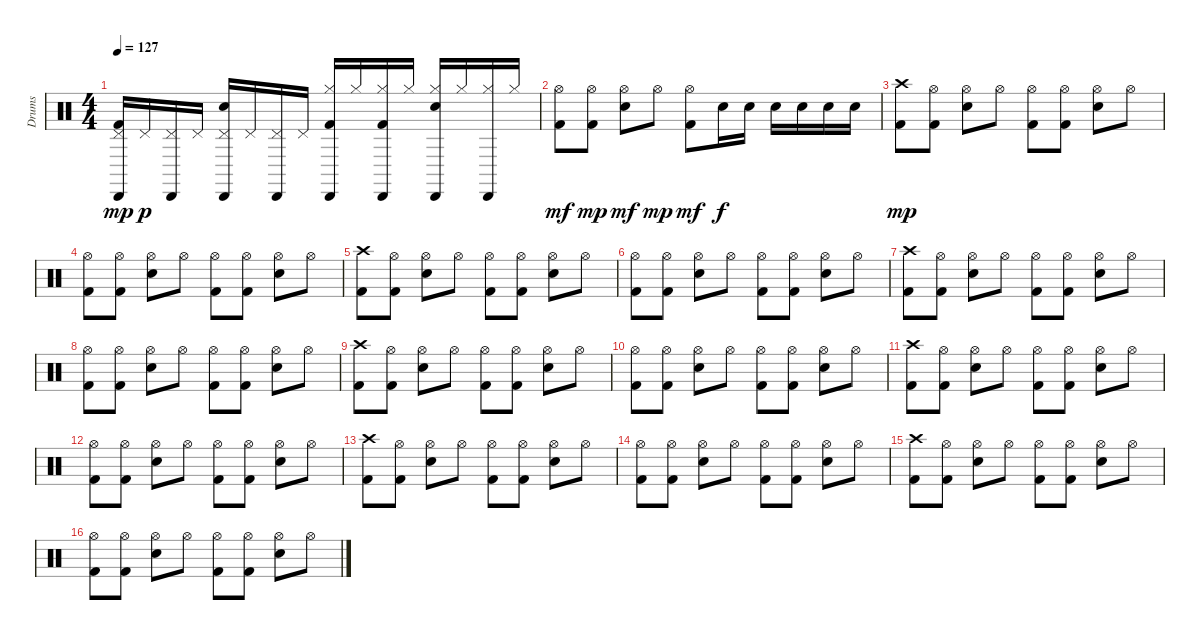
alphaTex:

\track ("Drums" "Drums") {instrument percussion}
\staff {score}
\articulation defaults
\ts (4 4)
\tempo 127
\clef neutral
\ks c
("Cabasa (hit)" "Pedal Hi-Hat (hit)" "Kick (hit) 2").16{dy mp} "Pedal Hi-Hat (hit)".16{dy p} ("Cabasa (hit)" "Pedal Hi-Hat (hit)").16 "Pedal Hi-Hat (hit)".16 ("Cabasa (hit)" "Pedal Hi-Hat (hit)" "Electric Snare (hit)").16 "Pedal Hi-Hat (hit)".16 ("Cabasa (hit)" "Pedal Hi-Hat (hit)").16 "Pedal Hi-Hat (hit)".16 ("Cabasa (hit)" "Hi-Hat (closed)" "Kick (hit) 2").16 "Hi-Hat (closed)".16 ("Cabasa (hit)" "Hi-Hat (closed)" "Kick (hit) 2").16 "Hi-Hat (closed)".16 ("Cabasa (hit)" "Hi-Hat (closed)" "Electric Snare (hit)").16 "Hi-Hat (closed)".16 ("Cabasa (hit)" "Hi-Hat (closed)").16 "Hi-Hat (closed)".16 |
("Hi-Hat (open)" "Kick (hit) 2").8{dy mf} ("Hi-Hat (open)" "Kick (hit) 2").8{dy mp} ("Hi-Hat (open)" "Electric Snare (hit)").8{dy mf} "Hi-Hat (open)".8{dy mp} ("Hi-Hat (open)" "Kick (hit) 2").8{dy mf} "Electric Snare (hit)".16{dy f} "Electric Snare (hit)".16 "Electric Snare (hit)".16 "Electric Snare (hit)".16 "Electric Snare (hit)".16 "Electric Snare (hit)".16 |
("Crash high (hit)" "Kick (hit) 2").8{dy mp} ("Hi-Hat (open)" "Kick (hit) 2").8 ("Hi-Hat (open)" "Electric Snare (hit)").8 "Hi-Hat (open)".8 ("Hi-Hat (open)" "Kick (hit) 2").8 ("Hi-Hat (open)" "Kick (hit) 2").8 ("Hi-Hat (open)" "Electric Snare (hit)").8 "Hi-Hat (open)".8 |
("Hi-Hat (open)" "Kick (hit) 2").8 ("Hi-Hat (open)" "Kick (hit) 2").8 ("Hi-Hat (open)" "Electric Snare (hit)").8 "Hi-Hat (open)".8 ("Hi-Hat (open)" "Kick (hit) 2").8 ("Hi-Hat (open)" "Kick (hit) 2").8 ("Hi-Hat (open)" "Electric Snare (hit)").8 "Hi-Hat (open)".8 |
("Crash high (hit)" "Kick (hit) 2").8 ("Hi-Hat (open)" "Kick (hit) 2").8 ("Hi-Hat (open)" "Electric Snare (hit)").8 "Hi-Hat (open)".8 ("Hi-Hat (open)" "Kick (hit) 2").8 ("Hi-Hat (open)" "Kick (hit) 2").8 ("Hi-Hat (open)" "Electric Snare (hit)").8 "Hi-Hat (open)".8 |
("Hi-Hat (open)" "Kick (hit) 2").8 ("Hi-Hat (open)" "Kick (hit) 2").8 ("Hi-Hat (open)" "Electric Snare (hit)").8 "Hi-Hat (open)".8 ("Hi-Hat (open)" "Kick (hit) 2").8 ("Hi-Hat (open)" "Kick (hit) 2").8 ("Hi-Hat (open)" "Electric Snare (hit)").8 "Hi-Hat (open)".8 |
("Crash high (hit)" "Kick (hit) 2").8 ("Hi-Hat (open)" "Kick (hit) 2").8 ("Hi-Hat (open)" "Electric Snare (hit)").8 "Hi-Hat (open)".8 ("Hi-Hat (open)" "Kick (hit) 2").8 ("Hi-Hat (open)" "Kick (hit) 2").8 ("Hi-Hat (open)" "Electric Snare (hit)").8 "Hi-Hat (open)".8 |
("Hi-Hat (open)" "Kick (hit) 2").8 ("Hi-Hat (open)" "Kick (hit) 2").8 ("Hi-Hat (open)" "Electric Snare (hit)").8 "Hi-Hat (open)".8 ("Hi-Hat (open)" "Kick (hit) 2").8 ("Hi-Hat (open)" "Kick (hit) 2").8 ("Hi-Hat (open)" "Electric Snare (hit)").8 "Hi-Hat (open)".8 |
("Crash high (hit)" "Kick (hit) 2").8 ("Hi-Hat (open)" "Kick (hit) 2").8 ("Hi-Hat (open)" "Electric Snare (hit)").8 "Hi-Hat (open)".8 ("Hi-Hat (open)" "Kick (hit) 2").8 ("Hi-Hat (open)" "Kick (hit) 2").8 ("Hi-Hat (open)" "Electric Snare (hit)").8 "Hi-Hat (open)".8 |
("Hi-Hat (open)" "Kick (hit) 2").8 ("Hi-Hat (open)" "Kick (hit) 2").8 ("Hi-Hat (open)" "Electric Snare (hit)").8 "Hi-Hat (open)".8 ("Hi-Hat (open)" "Kick (hit) 2").8 ("Hi-Hat (open)" "Kick (hit) 2").8 ("Hi-Hat (open)" "Electric Snare (hit)").8 "Hi-Hat (open)".8 |
("Crash high (hit)" "Kick (hit) 2").8 ("Hi-Hat (open)" "Kick (hit) 2").8 ("Hi-Hat (open)" "Electric Snare (hit)").8 "Hi-Hat (open)".8 ("Hi-Hat (open)" "Kick (hit) 2").8 ("Hi-Hat (open)" "Kick (hit) 2").8 ("Hi-Hat (open)" "Electric Snare (hit)").8 "Hi-Hat (open)".8 |
("Hi-Hat (open)" "Kick (hit) 2").8 ("Hi-Hat (open)" "Kick (hit) 2").8 ("Hi-Hat (open)" "Electric Snare (hit)").8 "Hi-Hat (open)".8 ("Hi-Hat (open)" "Kick (hit) 2").8 ("Hi-Hat (open)" "Kick (hit) 2").8 ("Hi-Hat (open)" "Electric Snare (hit)").8 "Hi-Hat (open)".8 |
("Crash high (hit)" "Kick (hit) 2").8 ("Hi-Hat (open)" "Kick (hit) 2").8 ("Hi-Hat (open)" "Electric Snare (hit)").8 "Hi-Hat (open)".8 ("Hi-Hat (open)" "Kick (hit) 2").8 ("Hi-Hat (open)" "Kick (hit) 2").8 ("Hi-Hat (open)" "Electric Snare (hit)").8 "Hi-Hat (open)".8 |
("Hi-Hat (open)" "Kick (hit) 2").8 ("Hi-Hat (open)" "Kick (hit) 2").8 ("Hi-Hat (open)" "Electric Snare (hit)").8 "Hi-Hat (open)".8 ("Hi-Hat (open)" "Kick (hit) 2").8 ("Hi-Hat (open)" "Kick (hit) 2").8 ("Hi-Hat (open)" "Electric Snare (hit)").8 "Hi-Hat (open)".8 |
("Crash high (hit)" "Kick (hit) 2").8 ("Hi-Hat (open)" "Kick (hit) 2").8 ("Hi-Hat (open)" "Electric Snare (hit)").8 "Hi-Hat (open)".8 ("Hi-Hat (open)" "Kick (hit) 2").8 ("Hi-Hat (open)" "Kick (hit) 2").8 ("Hi-Hat (open)" "Electric Snare (hit)").8 "Hi-Hat (open)".8 |
("Hi-Hat (open)" "Kick (hit) 2").8 ("Hi-Hat (open)" "Kick (hit) 2").8 ("Hi-Hat (open)" "Electric Snare (hit)").8 "Hi-Hat (open)".8 ("Hi-Hat (open)" "Kick (hit) 2").8 ("Hi-Hat (open)" "Kick (hit) 2").8 ("Hi-Hat (open)" "Electric Snare (hit)").8 "Hi-Hat (open)".8
